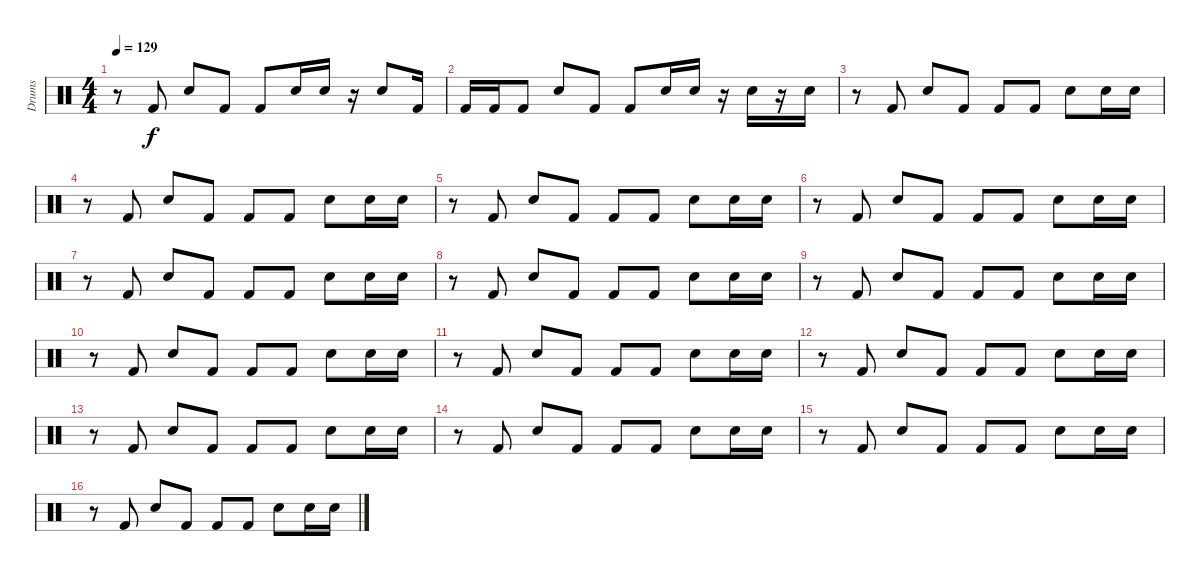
\track ("Drums" "Drums") {instrument percussion}
\staff {score}
\articulation defaults
\ts (4 4)
\tempo 129
\clef neutral
\ks c
r.8{dy f} "Kick (hit) 2".8 "Snare (hit) 2".8 "Kick (hit) 2".8 "Kick (hit) 2".8 "Snare (hit) 2".16 "Snare (hit) 2".16 r.16 "Snare (hit) 2".8 "Kick (hit) 2".16 |
"Kick (hit) 2".16 "Kick (hit) 2".16 "Kick (hit) 2".8 "Snare (hit) 2".8 "Kick (hit) 2".8 "Kick (hit) 2".8 "Snare (hit) 2".16 "Snare (hit) 2".16 r.16 "Snare (hit) 2".16 r.16 "Snare (hit) 2".16 |
r.8 "Kick (hit) 2".8 "Snare (hit) 2".8 "Kick (hit) 2".8 "Kick (hit) 2".8 "Kick (hit) 2".8 "Snare (hit) 2".8 "Snare (hit) 2".16 "Snare (hit) 2".16 |
r.8 "Kick (hit) 2".8 "Snare (hit) 2".8 "Kick (hit) 2".8 "Kick (hit) 2".8 "Kick (hit) 2".8 "Snare (hit) 2".8 "Snare (hit) 2".16 "Snare (hit) 2".16 |
r.8 "Kick (hit) 2".8 "Snare (hit) 2".8 "Kick (hit) 2".8 "Kick (hit) 2".8 "Kick (hit) 2".8 "Snare (hit) 2".8 "Snare (hit) 2".16 "Snare (hit) 2".16 |
r.8 "Kick (hit) 2".8 "Snare (hit) 2".8 "Kick (hit) 2".8 "Kick (hit) 2".8 "Kick (hit) 2".8 "Snare (hit) 2".8 "Snare (hit) 2".16 "Snare (hit) 2".16 |
r.8 "Kick (hit) 2".8 "Snare (hit) 2".8 "Kick (hit) 2".8 "Kick (hit) 2".8 "Kick (hit) 2".8 "Snare (hit) 2".8 "Snare (hit) 2".16 "Snare (hit) 2".16 |
r.8 "Kick (hit) 2".8 "Snare (hit) 2".8 "Kick (hit) 2".8 "Kick (hit) 2".8 "Kick (hit) 2".8 "Snare (hit) 2".8 "Snare (hit) 2".16 "Snare (hit) 2".16 |
r.8 "Kick (hit) 2".8 "Snare (hit) 2".8 "Kick (hit) 2".8 "Kick (hit) 2".8 "Kick (hit) 2".8 "Snare (hit) 2".8 "Snare (hit) 2".16 "Snare (hit) 2".16 |
r.8 "Kick (hit) 2".8 "Snare (hit) 2".8 "Kick (hit) 2".8 "Kick (hit) 2".8 "Kick (hit) 2".8 "Snare (hit) 2".8 "Snare (hit) 2".16 "Snare (hit) 2".16 |
r.8 "Kick (hit) 2".8 "Snare (hit) 2".8 "Kick (hit) 2".8 "Kick (hit) 2".8 "Kick (hit) 2".8 "Snare (hit) 2".8 "Snare (hit) 2".16 "Snare (hit) 2".16 |
r.8 "Kick (hit) 2".8 "Snare (hit) 2".8 "Kick (hit) 2".8 "Kick (hit) 2".8 "Kick (hit) 2".8 "Snare (hit) 2".8 "Snare (hit) 2".16 "Snare (hit) 2".16 |
r.8 "Kick (hit) 2".8 "Snare (hit) 2".8 "Kick (hit) 2".8 "Kick (hit) 2".8 "Kick (hit) 2".8 "Snare (hit) 2".8 "Snare (hit) 2".16 "Snare (hit) 2".16 |
r.8 "Kick (hit) 2".8 "Snare (hit) 2".8 "Kick (hit) 2".8 "Kick (hit) 2".8 "Kick (hit) 2".8 "Snare (hit) 2".8 "Snare (hit) 2".16 "Snare (hit) 2".16 |
r.8 "Kick (hit) 2".8 "Snare (hit) 2".8 "Kick (hit) 2".8 "Kick (hit) 2".8 "Kick (hit) 2".8 "Snare (hit) 2".8 "Snare (hit) 2".16 "Snare (hit) 2".16 |
r.8 "Kick (hit) 2".8 "Snare (hit) 2".8 "Kick (hit) 2".8 "Kick (hit) 2".8 "Kick (hit) 2".8 "Snare (hit) 2".8 "Snare (hit) 2".16 "Snare (hit) 2".16
